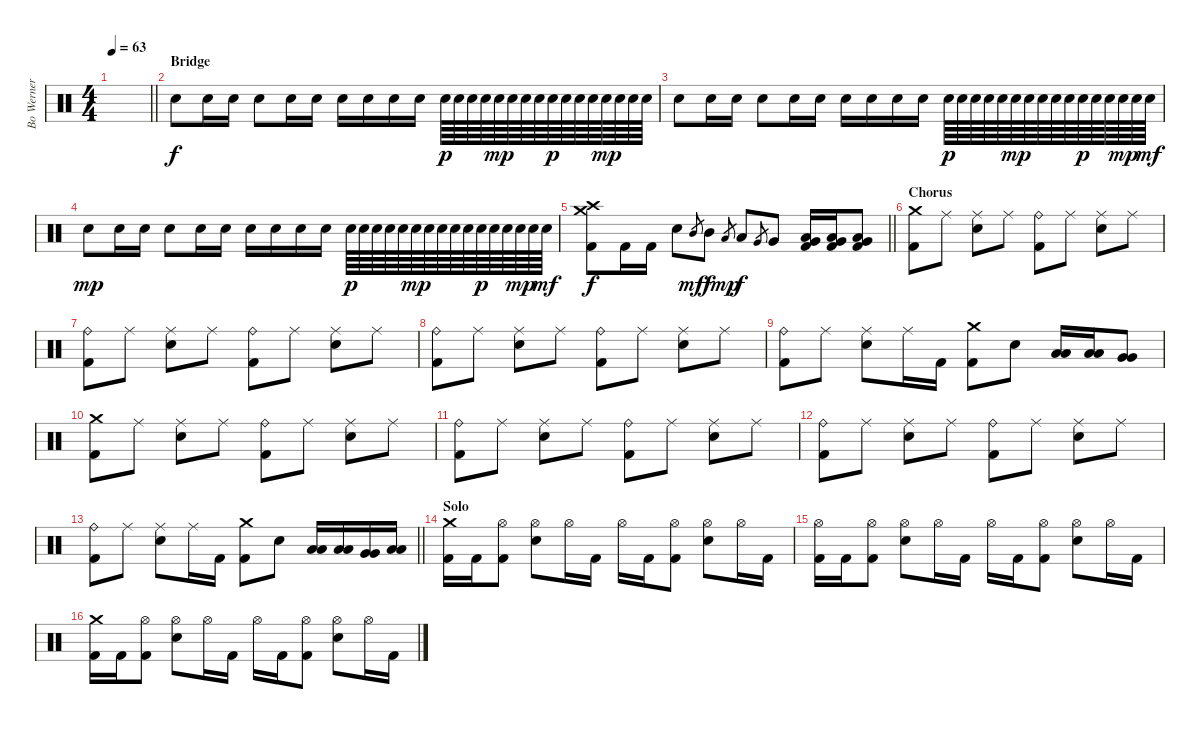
\track ("Bo Werner " "Bo Werner ") {instrument percussion}
\staff {score}
\articulation defaults
\ts (4 4)
\tempo 63
\clef neutral
\barLineRight lightlight
\ks c
|
\section ("" "Bridge")
"Electric Snare (hit)".8 "Electric Snare (hit)".16 "Electric Snare (hit)".16 "Electric Snare (hit)".8 "Electric Snare (hit)".16 "Electric Snare (hit)".16 "Electric Snare (hit)".16 "Electric Snare (hit)".16 "Electric Snare (hit)".16 "Electric Snare (hit)".16 "Electric Snare (hit)".64{dy p} "Electric Snare (hit)".64 "Electric Snare (hit)".64 "Electric Snare (hit)".64 "Electric Snare (hit)".64{dy mp} "Electric Snare (hit)".64 "Electric Snare (hit)".64 "Electric Snare (hit)".64 "Electric Snare (hit)".64{dy p} "Electric Snare (hit)".64 "Electric Snare (hit)".64 "Electric Snare (hit)".64 "Electric Snare (hit)".64{dy mp} "Electric Snare (hit)".64 "Electric Snare (hit)".64 "Electric Snare (hit)".64 |
"Electric Snare (hit)".8 "Electric Snare (hit)".16 "Electric Snare (hit)".16 "Electric Snare (hit)".8 "Electric Snare (hit)".16 "Electric Snare (hit)".16 "Electric Snare (hit)".16 "Electric Snare (hit)".16 "Electric Snare (hit)".16 "Electric Snare (hit)".16 "Electric Snare (hit)".64{dy p} "Electric Snare (hit)".64 "Electric Snare (hit)".64 "Electric Snare (hit)".64 "Electric Snare (hit)".64 "Electric Snare (hit)".64{dy mp} "Electric Snare (hit)".64 "Electric Snare (hit)".64 "Electric Snare (hit)".64 "Electric Snare (hit)".64 "Electric Snare (hit)".64{dy p} "Electric Snare (hit)".64 "Electric Snare (hit)".64 "Electric Snare (hit)".64{dy mp} "Electric Snare (hit)".64 "Electric Snare (hit)".64{dy mf} |
"Electric Snare (hit)".8{dy mp} "Electric Snare (hit)".16 "Electric Snare (hit)".16 "Electric Snare (hit)".8 "Electric Snare (hit)".16 "Electric Snare (hit)".16 "Electric Snare (hit)".16 "Electric Snare (hit)".16 "Electric Snare (hit)".16 "Electric Snare (hit)".16 "Electric Snare (hit)".64{dy p} "Electric Snare (hit)".64 "Electric Snare (hit)".64 "Electric Snare (hit)".64 "Electric Snare (hit)".64 "Electric Snare (hit)".64{dy mp} "Electric Snare (hit)".64 "Electric Snare (hit)".64 "Electric Snare (hit)".64 "Electric Snare (hit)".64 "Electric Snare (hit)".64{dy p} "Electric Snare (hit)".64 "Electric Snare (hit)".64 "Electric Snare (hit)".64{dy mp} "Electric Snare (hit)".64 "Electric Snare (hit)".64{dy mf} |
\barLineRight lightlight
("Crash medium (hit)" "Crash high (hit)" "Kick (hit) 2").8{dy f} "Kick (hit) 2".16 "Kick (hit) 2".16 "Snare (hit) 2".8 "Mid Tom (hit)".8{gr dy mf} "Mid Tom (hit)".8{dy f} "Low Tom (hit)".8{gr dy mp} "Low Tom (hit)".8{dy f} "Very Low Tom (hit)".8{gr} "Very Low Tom (hit)".8 ("Low Floor Tom (hit)" "Very Low Tom (hit)" "Kick (hit) 2").16 ("Low Floor Tom (hit)" "Very Low Tom (hit)" "Kick (hit) 2").16 ("Low Floor Tom (hit)" "Very Low Tom (hit)" "Kick (hit) 2").8 |
\section ("" "Chorus")
("Crash medium (hit)" "Kick (hit) 2").8 "Ride (middle)".8 ("Ride (middle)" "Electric Snare (hit)").8 "Ride (middle)".8 ("Ride (bell)" "Kick (hit) 2").8 "Ride (middle)".8 ("Ride (middle)" "Electric Snare (hit)").8 "Ride (middle)".8 |
("Ride (bell)" "Kick (hit) 2").8 "Ride (middle)".8 ("Ride (middle)" "Electric Snare (hit)").8 "Ride (middle)".8 ("Ride (bell)" "Kick (hit) 2").8 "Ride (middle)".8 ("Ride (middle)" "Electric Snare (hit)").8 "Ride (middle)".8 |
("Ride (bell)" "Kick (hit) 2").8 "Ride (middle)".8 ("Ride (middle)" "Electric Snare (hit)").8 "Ride (middle)".8 ("Ride (bell)" "Kick (hit) 2").8 "Ride (middle)".8 ("Ride (middle)" "Electric Snare (hit)").8 "Ride (middle)".8 |
("Ride (bell)" "Kick (hit) 2").8 "Ride (middle)".8 ("Ride (middle)" "Electric Snare (hit)").8 "Ride (middle)".16 "Kick (hit) 2".16 ("Crash medium (hit)" "Kick (hit) 2").8 "Electric Snare (hit)".8 ("Low Tom (hit)" "Low Tom (hit)").16 ("Low Tom (hit)" "Low Tom (hit)").16 ("Very Low Tom (hit)" "Very Low Tom (hit)").8 |
("Crash medium (hit)" "Kick (hit) 2").8 "Ride (middle)".8 ("Ride (middle)" "Electric Snare (hit)").8 "Ride (middle)".8 ("Ride (bell)" "Kick (hit) 2").8 "Ride (middle)".8 ("Ride (middle)" "Electric Snare (hit)").8 "Ride (middle)".8 |
("Ride (bell)" "Kick (hit) 2").8 "Ride (middle)".8 ("Ride (middle)" "Electric Snare (hit)").8 "Ride (middle)".8 ("Ride (bell)" "Kick (hit) 2").8 "Ride (middle)".8 ("Ride (middle)" "Electric Snare (hit)").8 "Ride (middle)".8 |
("Ride (bell)" "Kick (hit) 2").8 "Ride (middle)".8 ("Ride (middle)" "Electric Snare (hit)").8 "Ride (middle)".8 ("Ride (bell)" "Kick (hit) 2").8 "Ride (middle)".8 ("Ride (middle)" "Electric Snare (hit)").8 "Ride (middle)".8 |
\barLineRight lightlight
("Ride (bell)" "Kick (hit) 2").8 "Ride (middle)".8 ("Ride (middle)" "Electric Snare (hit)").8 "Ride (middle)".16 "Kick (hit) 2".16 ("Crash medium (hit)" "Kick (hit) 2").8 "Electric Snare (hit)".8 ("Low Tom (hit)" "Low Tom (hit)").16 ("Low Tom (hit)" "Low Tom (hit)").16 ("Very Low Tom (hit)" "Very Low Tom (hit)").16 ("Low Floor Tom (hit)" "Low Floor Tom (hit)").16 |
\section ("" "Solo")
("Crash medium (hit)" "Kick (hit) 2").16 "Kick (hit) 2".16 ("Hi-Hat (open)" "Kick (hit) 2").8 ("Hi-Hat (open)" "Electric Snare (hit)").8 "Hi-Hat (open)".16 "Kick (hit) 2".16 "Hi-Hat (open)".16 "Kick (hit) 2".16 ("Hi-Hat (open)" "Kick (hit) 2").8 ("Hi-Hat (open)" "Electric Snare (hit)").8 "Hi-Hat (open)".16 "Kick (hit) 2".16 |
("Hi-Hat (open)" "Kick (hit) 2").16 "Kick (hit) 2".16 ("Hi-Hat (open)" "Kick (hit) 2").8 ("Hi-Hat (open)" "Electric Snare (hit)").8 "Hi-Hat (open)".16 "Kick (hit) 2".16 "Hi-Hat (open)".16 "Kick (hit) 2".16 ("Hi-Hat (open)" "Kick (hit) 2").8 ("Hi-Hat (open)" "Electric Snare (hit)").8 "Hi-Hat (open)".16 "Kick (hit) 2".16 |
("Crash medium (hit)" "Kick (hit) 2").16 "Kick (hit) 2".16 ("Hi-Hat (open)" "Kick (hit) 2").8 ("Hi-Hat (open)" "Electric Snare (hit)").8 "Hi-Hat (open)".16 "Kick (hit) 2".16 "Hi-Hat (open)".16 "Kick (hit) 2".16 ("Hi-Hat (open)" "Kick (hit) 2").8 ("Hi-Hat (open)" "Electric Snare (hit)").8 "Hi-Hat (open)".16 "Kick (hit) 2".16
